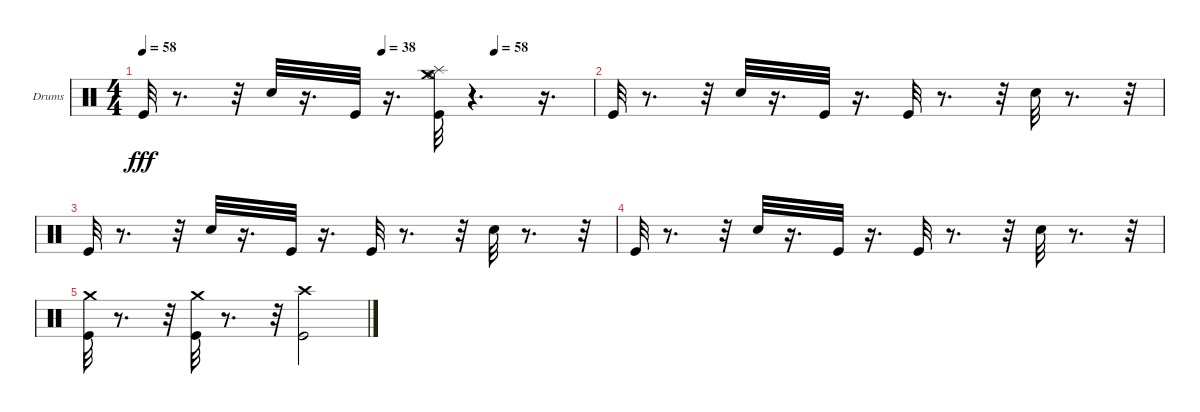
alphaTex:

\bracketExtendMode groupsimilarinstruments
\firstSystemTrackNameOrientation horizontal
\otherSystemsTrackNameOrientation horizontal
\track ("Drumkit" "Drums") {instrument percussion}
\staff {score}
\articulation defaults
\ts (4 4)
\tempo 58
\tempo (38 0.53125)
\tempo (58 0.78125)
\clef neutral
\ks c "Kick (hit)".32{dy fff}
r.8{d} r.32 "Snare (hit) 2".32 r.16{d} "Kick (hit)".32 r.16{d} ("Kick (hit)" "Splash (hit)" "Hi-Hat (open)" "Crash medium (hit)").32 r.4{d} r.16{d} |
"Kick (hit)".32 r.8{d} r.32 "Snare (hit) 2".32 r.16{d} "Kick (hit)".32 r.16{d} "Kick (hit)".32 r.8{d} r.32 "Snare (hit) 2".32 r.8{d} r.32 |
"Kick (hit)".32 r.8{d} r.32 "Snare (hit) 2".32 r.16{d} "Kick (hit)".32 r.16{d} "Kick (hit)".32 r.8{d} r.32 "Snare (hit) 2".32 r.8{d} r.32 |
"Kick (hit)".32 r.8{d} r.32 "Snare (hit) 2".32 r.16{d} "Kick (hit)".32 r.16{d} "Kick (hit)".32 r.8{d} r.32 "Snare (hit) 2".32 r.8{d} r.32 |
("Kick (hit)" "Crash medium (hit)").32 r.8{d} r.32 ("Kick (hit)" "Crash medium (hit)").32 r.8{d} r.32 ("Kick (hit)" "Crash high (hit)").2
